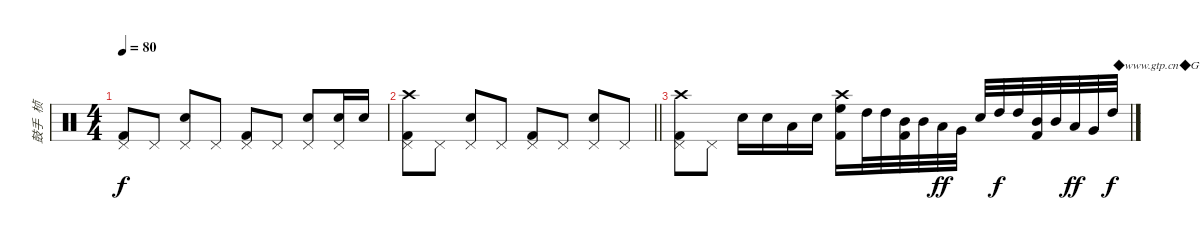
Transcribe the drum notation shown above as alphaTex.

\track ("鼓手  桢" "鼓手  桢") {instrument percussion}
\staff {score}
\articulation defaults
\ts (4 4)
\tempo 80
\clef neutral
\ks c
("Pedal Hi-Hat (hit)" "Kick (hit) 2").8{dy f} "Pedal Hi-Hat (hit)".8 ("Pedal Hi-Hat (hit)" "Snare (hit) 2").8 "Pedal Hi-Hat (hit)".8 ("Pedal Hi-Hat (hit)" "Kick (hit) 2").8 "Pedal Hi-Hat (hit)".8 ("Pedal Hi-Hat (hit)" "Snare (hit) 2").8 ("Pedal Hi-Hat (hit)" "Snare (hit) 2").16 "Snare (hit) 2".16 |
\barLineRight lightlight
("Pedal Hi-Hat (hit)" "Kick (hit) 2" "Crash high (hit)").8 "Pedal Hi-Hat (hit)".8 ("Pedal Hi-Hat (hit)" "Snare (hit) 2").8 "Pedal Hi-Hat (hit)".8 ("Pedal Hi-Hat (hit)" "Kick (hit) 2").8 "Pedal Hi-Hat (hit)".8 ("Pedal Hi-Hat (hit)" "Snare (hit) 2").8 "Pedal Hi-Hat (hit)".8 |
("Pedal Hi-Hat (hit)" "Kick (hit) 2" "Crash high (hit)").8 "Pedal Hi-Hat (hit)".8 "Snare (hit) 2".16 "Snare (hit) 2".16 "Low Tom (hit)".16 "Snare (hit) 2".16 ("Crash high (hit)" "High Floor Tom (hit)" "Kick (hit) 2").16 "High Tom (hit)".32 "High Tom (hit)".32 ("Mid Tom (hit)" "Kick (hit) 2").32 "Mid Tom (hit)".32 "Low Tom (hit)".32{dy ff} "Very Low Tom (hit)".32 "Electric Snare (hit)".32 "High Tom (hit)".32{dy f} "High Tom (hit)".32 ("Mid Tom (hit)" "Kick (hit) 2").32 "Mid Tom (hit)".32 "Low Tom (hit)".32{dy ff} "Very Low Tom (hit)".32 "High Tom (hit)".32{txt "◆www.gtp.cn◆GTP中文网为您提供优秀的GTP！" dy f}
